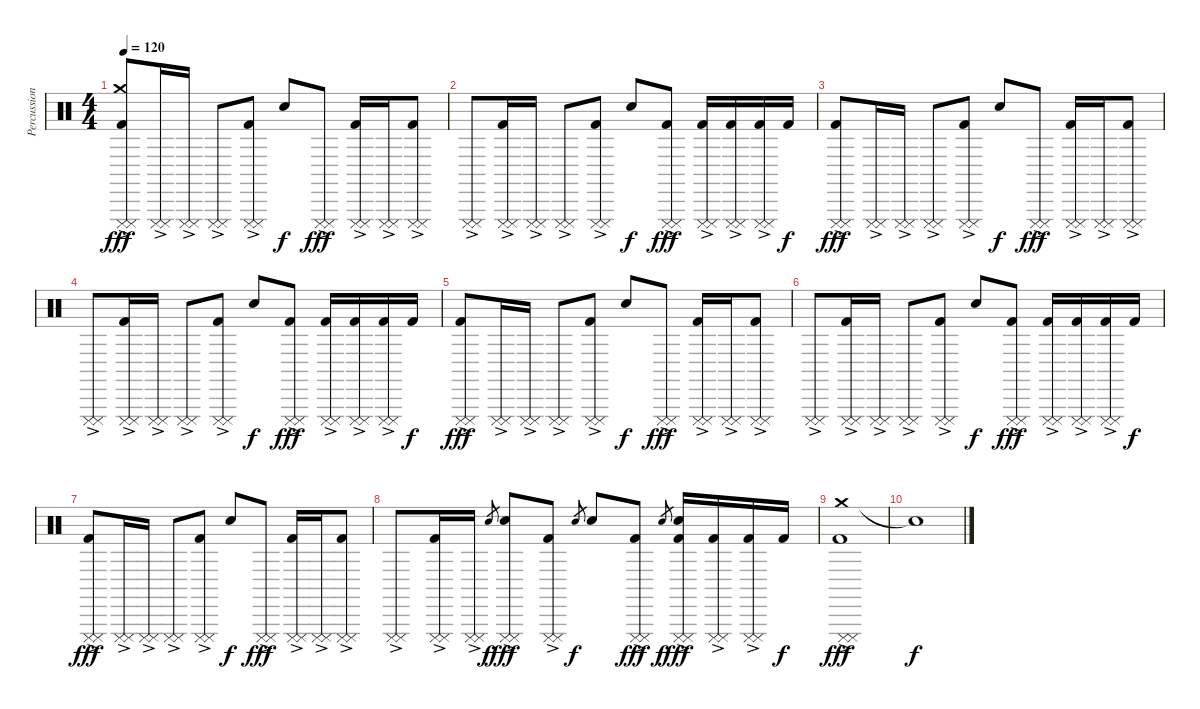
\track ("Percussion" "Percussion") {instrument percussion}
\staff {score}
\articulation defaults
\ts (4 4)
\tempo 120
\clef neutral
\ks c
("Cuica (mute)"{ac} "Cuica (mute)"{ac} "Crash medium (hit)" "Kick (hit) 2").8{dy fff} ("Cuica (mute)"{ac} "Cuica (mute)"{ac}).16 ("Cuica (mute)"{ac} "Cuica (mute)"{ac}).16 ("Cuica (mute)"{ac} "Cuica (mute)"{ac}).8 ("Cuica (mute)"{ac} "Cuica (mute)"{ac} "Kick (hit) 2").8 "Electric Snare (hit)".8{dy f} ("Cuica (mute)"{ac} "Cuica (mute)"{ac}).8{dy fff} ("Cuica (mute)"{ac} "Cuica (mute)"{ac} "Kick (hit) 2").16 ("Cuica (mute)"{ac} "Cuica (mute)"{ac}).16 ("Cuica (mute)"{ac} "Cuica (mute)"{ac} "Kick (hit) 2").8 |
("Cuica (mute)"{ac} "Cuica (mute)"{ac}).8 ("Cuica (mute)"{ac} "Cuica (mute)"{ac} "Kick (hit) 2").16 ("Cuica (mute)"{ac} "Cuica (mute)"{ac}).16 ("Cuica (mute)"{ac} "Cuica (mute)"{ac}).8 ("Cuica (mute)"{ac} "Cuica (mute)"{ac} "Kick (hit) 2").8 "Electric Snare (hit)".8{dy f} ("Cuica (mute)"{ac} "Cuica (mute)"{ac} "Kick (hit) 2").8{dy fff} ("Cuica (mute)"{ac} "Cuica (mute)"{ac} "Kick (hit) 2").16 ("Cuica (mute)"{ac} "Cuica (mute)"{ac} "Kick (hit) 2").16 ("Cuica (mute)"{ac} "Cuica (mute)"{ac} "Kick (hit) 2").16 "Kick (hit) 2".16{dy f} |
("Cuica (mute)"{ac} "Cuica (mute)"{ac} "Kick (hit) 2").8{dy fff} ("Cuica (mute)"{ac} "Cuica (mute)"{ac}).16 ("Cuica (mute)"{ac} "Cuica (mute)"{ac}).16 ("Cuica (mute)"{ac} "Cuica (mute)"{ac}).8 ("Cuica (mute)"{ac} "Cuica (mute)"{ac} "Kick (hit) 2").8 "Electric Snare (hit)".8{dy f} ("Cuica (mute)"{ac} "Cuica (mute)"{ac}).8{dy fff} ("Cuica (mute)"{ac} "Cuica (mute)"{ac} "Kick (hit) 2").16 ("Cuica (mute)"{ac} "Cuica (mute)"{ac}).16 ("Cuica (mute)"{ac} "Cuica (mute)"{ac} "Kick (hit) 2").8 |
("Cuica (mute)"{ac} "Cuica (mute)"{ac}).8 ("Cuica (mute)"{ac} "Cuica (mute)"{ac} "Kick (hit) 2").16 ("Cuica (mute)"{ac} "Cuica (mute)"{ac}).16 ("Cuica (mute)"{ac} "Cuica (mute)"{ac}).8 ("Cuica (mute)"{ac} "Cuica (mute)"{ac} "Kick (hit) 2").8 "Electric Snare (hit)".8{dy f} ("Cuica (mute)"{ac} "Cuica (mute)"{ac} "Kick (hit) 2").8{dy fff} ("Cuica (mute)"{ac} "Cuica (mute)"{ac} "Kick (hit) 2").16 ("Cuica (mute)"{ac} "Cuica (mute)"{ac} "Kick (hit) 2").16 ("Cuica (mute)"{ac} "Cuica (mute)"{ac} "Kick (hit) 2").16 "Kick (hit) 2".16{dy f} |
("Cuica (mute)"{ac} "Cuica (mute)"{ac} "Kick (hit) 2").8{dy fff} ("Cuica (mute)"{ac} "Cuica (mute)"{ac}).16 ("Cuica (mute)"{ac} "Cuica (mute)"{ac}).16 ("Cuica (mute)"{ac} "Cuica (mute)"{ac}).8 ("Cuica (mute)"{ac} "Cuica (mute)"{ac} "Kick (hit) 2").8 "Electric Snare (hit)".8{dy f} ("Cuica (mute)"{ac} "Cuica (mute)"{ac}).8{dy fff} ("Cuica (mute)"{ac} "Cuica (mute)"{ac} "Kick (hit) 2").16 ("Cuica (mute)"{ac} "Cuica (mute)"{ac}).16 ("Cuica (mute)"{ac} "Cuica (mute)"{ac} "Kick (hit) 2").8 |
("Cuica (mute)"{ac} "Cuica (mute)"{ac}).8 ("Cuica (mute)"{ac} "Cuica (mute)"{ac} "Kick (hit) 2").16 ("Cuica (mute)"{ac} "Cuica (mute)"{ac}).16 ("Cuica (mute)"{ac} "Cuica (mute)"{ac}).8 ("Cuica (mute)"{ac} "Cuica (mute)"{ac} "Kick (hit) 2").8 "Electric Snare (hit)".8{dy f} ("Cuica (mute)"{ac} "Cuica (mute)"{ac} "Kick (hit) 2").8{dy fff} ("Cuica (mute)"{ac} "Cuica (mute)"{ac} "Kick (hit) 2").16 ("Cuica (mute)"{ac} "Cuica (mute)"{ac} "Kick (hit) 2").16 ("Cuica (mute)"{ac} "Cuica (mute)"{ac} "Kick (hit) 2").16 "Kick (hit) 2".16{dy f} |
("Cuica (mute)"{ac} "Cuica (mute)"{ac} "Kick (hit) 2").8{dy fff} ("Cuica (mute)"{ac} "Cuica (mute)"{ac}).16 ("Cuica (mute)"{ac} "Cuica (mute)"{ac}).16 ("Cuica (mute)"{ac} "Cuica (mute)"{ac}).8 ("Cuica (mute)"{ac} "Cuica (mute)"{ac} "Kick (hit) 2").8 "Electric Snare (hit)".8{dy f} ("Cuica (mute)"{ac} "Cuica (mute)"{ac}).8{dy fff} ("Cuica (mute)"{ac} "Cuica (mute)"{ac} "Kick (hit) 2").16 ("Cuica (mute)"{ac} "Cuica (mute)"{ac}).16 ("Cuica (mute)"{ac} "Cuica (mute)"{ac} "Kick (hit) 2").8 |
("Cuica (mute)"{ac} "Cuica (mute)"{ac}).8 ("Cuica (mute)"{ac} "Cuica (mute)"{ac} "Kick (hit) 2").16 ("Cuica (mute)"{ac} "Cuica (mute)"{ac}).16 "Electric Snare (hit)".8{gr dy f} ("Cuica (mute)"{ac} "Cuica (mute)"{ac} "Electric Snare (hit)").8{dy fff} ("Cuica (mute)"{ac} "Cuica (mute)"{ac} "Kick (hit) 2").8 "Electric Snare (hit)".8{gr dy f} "Electric Snare (hit)".8 ("Cuica (mute)"{ac} "Cuica (mute)"{ac} "Kick (hit) 2").8{dy fff} "Electric Snare (hit)".8{gr dy f} ("Cuica (mute)"{ac} "Cuica (mute)"{ac} "Electric Snare (hit)" "Kick (hit) 2").16{dy fff} ("Cuica (mute)"{ac} "Cuica (mute)"{ac} "Kick (hit) 2").16 ("Cuica (mute)"{ac} "Cuica (mute)"{ac} "Kick (hit) 2").16 "Kick (hit) 2".16{dy f} |
("Crash medium (hit)" "Cuica (mute)"{ac} "Cuica (mute)"{ac} "Kick (hit) 2").1{dy fff} |
"Snare (hit)"{t}.1{dy f}
